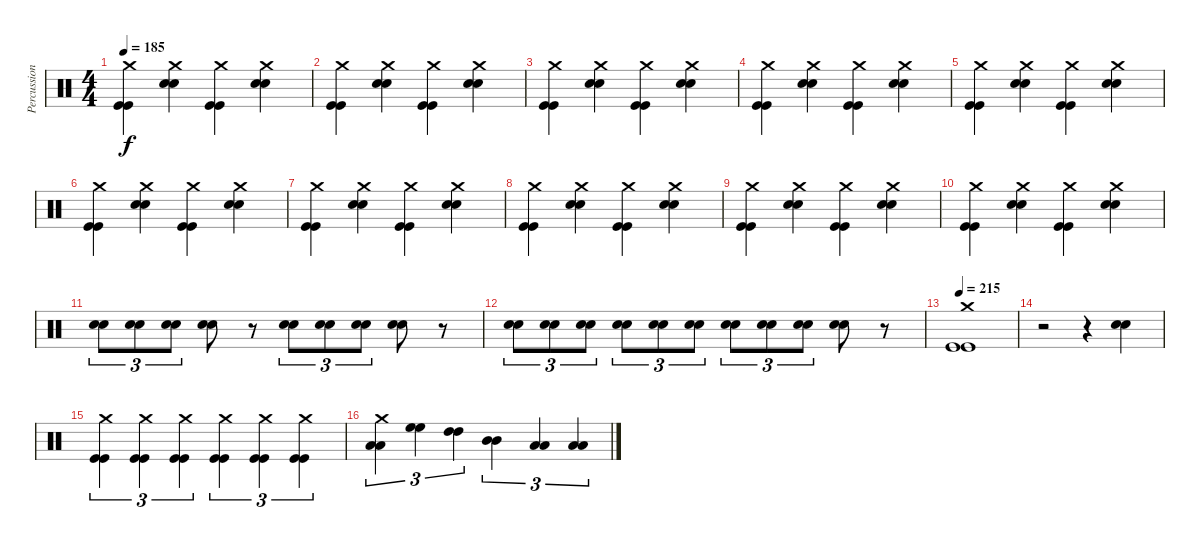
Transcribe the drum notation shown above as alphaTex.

\track ("Percussion" "Percussion") {instrument percussion}
\staff {score}
\articulation defaults
\ts (4 4)
\tempo 185
\clef neutral
\ks c
("Kick (hit)" "Kick (hit)" "Crash medium (hit)").4{dy f} ("Crash medium (hit)" "Snare (hit) 2" "Snare (hit) 2").4 ("Kick (hit)" "Kick (hit)" "Crash medium (hit)").4 ("Crash medium (hit)" "Snare (hit) 2" "Snare (hit) 2").4 |
("Kick (hit)" "Kick (hit)" "Crash medium (hit)").4 ("Crash medium (hit)" "Snare (hit) 2" "Snare (hit) 2").4 ("Kick (hit)" "Kick (hit)" "Crash medium (hit)").4 ("Crash medium (hit)" "Snare (hit) 2" "Snare (hit) 2").4 |
("Kick (hit)" "Kick (hit)" "Crash medium (hit)").4 ("Crash medium (hit)" "Snare (hit) 2" "Snare (hit) 2").4 ("Kick (hit)" "Kick (hit)" "Crash medium (hit)").4 ("Crash medium (hit)" "Snare (hit) 2" "Snare (hit) 2").4 |
("Kick (hit)" "Kick (hit)" "Crash medium (hit)").4 ("Crash medium (hit)" "Snare (hit) 2" "Snare (hit) 2").4 ("Kick (hit)" "Kick (hit)" "Crash medium (hit)").4 ("Crash medium (hit)" "Snare (hit) 2" "Snare (hit) 2").4 |
("Kick (hit)" "Kick (hit)" "Crash medium (hit)").4 ("Crash medium (hit)" "Snare (hit) 2" "Snare (hit) 2").4 ("Kick (hit)" "Kick (hit)" "Crash medium (hit)").4 ("Crash medium (hit)" "Snare (hit) 2" "Snare (hit) 2").4 |
("Kick (hit)" "Kick (hit)" "Crash medium (hit)").4 ("Crash medium (hit)" "Snare (hit) 2" "Snare (hit) 2").4 ("Kick (hit)" "Kick (hit)" "Crash medium (hit)").4 ("Crash medium (hit)" "Snare (hit) 2" "Snare (hit) 2").4 |
("Kick (hit)" "Kick (hit)" "Crash medium (hit)").4 ("Crash medium (hit)" "Snare (hit) 2" "Snare (hit) 2").4 ("Kick (hit)" "Kick (hit)" "Crash medium (hit)").4 ("Crash medium (hit)" "Snare (hit) 2" "Snare (hit) 2").4 |
("Kick (hit)" "Kick (hit)" "Crash medium (hit)").4 ("Crash medium (hit)" "Snare (hit) 2" "Snare (hit) 2").4 ("Kick (hit)" "Kick (hit)" "Crash medium (hit)").4 ("Crash medium (hit)" "Snare (hit) 2" "Snare (hit) 2").4 |
("Kick (hit)" "Kick (hit)" "Crash medium (hit)").4 ("Crash medium (hit)" "Snare (hit) 2" "Snare (hit) 2").4 ("Kick (hit)" "Kick (hit)" "Crash medium (hit)").4 ("Crash medium (hit)" "Snare (hit) 2" "Snare (hit) 2").4 |
("Kick (hit)" "Kick (hit)" "Crash medium (hit)").4 ("Crash medium (hit)" "Snare (hit) 2" "Snare (hit) 2").4 ("Kick (hit)" "Kick (hit)" "Crash medium (hit)").4 ("Crash medium (hit)" "Snare (hit) 2" "Snare (hit) 2").4 |
("Snare (hit) 2" "Snare (hit) 2").8{tu (3 2)} ("Snare (hit) 2" "Snare (hit) 2").8{tu (3 2)} ("Snare (hit) 2" "Snare (hit) 2").8{tu (3 2)} ("Snare (hit) 2" "Snare (hit) 2").8 r.8 ("Snare (hit) 2" "Snare (hit) 2").8{tu (3 2)} ("Snare (hit) 2" "Snare (hit) 2").8{tu (3 2)} ("Snare (hit) 2" "Snare (hit) 2").8{tu (3 2)} ("Snare (hit) 2" "Snare (hit) 2").8 r.8 |
("Snare (hit) 2" "Snare (hit) 2").8{tu (3 2)} ("Snare (hit) 2" "Snare (hit) 2").8{tu (3 2)} ("Snare (hit) 2" "Snare (hit) 2").8{tu (3 2)} ("Snare (hit) 2" "Snare (hit) 2").8{tu (3 2)} ("Snare (hit) 2" "Snare (hit) 2").8{tu (3 2)} ("Snare (hit) 2" "Snare (hit) 2").8{tu (3 2)} ("Snare (hit) 2" "Snare (hit) 2").8{tu (3 2)} ("Snare (hit) 2" "Snare (hit) 2").8{tu (3 2)} ("Snare (hit) 2" "Snare (hit) 2").8{tu (3 2)} ("Snare (hit) 2" "Snare (hit) 2").8 r.8 |
\tempo 215
("Crash medium (hit)" "Kick (hit)" "Kick (hit)").1 |
r.2 r.4 ("Snare (hit) 2" "Snare (hit) 2").4 |
("Crash medium (hit)" "Kick (hit)" "Kick (hit)").4{tu (3 2)} ("Crash medium (hit)" "Kick (hit)" "Kick (hit)").4{tu (3 2)} ("Crash medium (hit)" "Kick (hit)" "Kick (hit)").4{tu (3 2)} ("Crash medium (hit)" "Kick (hit)" "Kick (hit)").4{tu (3 2)} ("Crash medium (hit)" "Kick (hit)" "Kick (hit)").4{tu (3 2)} ("Crash medium (hit)" "Kick (hit)" "Kick (hit)").4{tu (3 2)} |
("Crash medium (hit)" "Low Floor Tom (hit)" "Low Floor Tom (hit)").4{tu (3 2)} ("High Floor Tom (hit)" "High Floor Tom (hit)").4{tu (3 2)} ("High Tom (hit)" "High Tom (hit)").4{tu (3 2)} ("Mid Tom (hit)" "Mid Tom (hit)").4{tu (3 2)} ("Low Tom (hit)" "Low Tom (hit)").4{tu (3 2)} ("Low Floor Tom (hit)" "Low Floor Tom (hit)").4{tu (3 2)}
